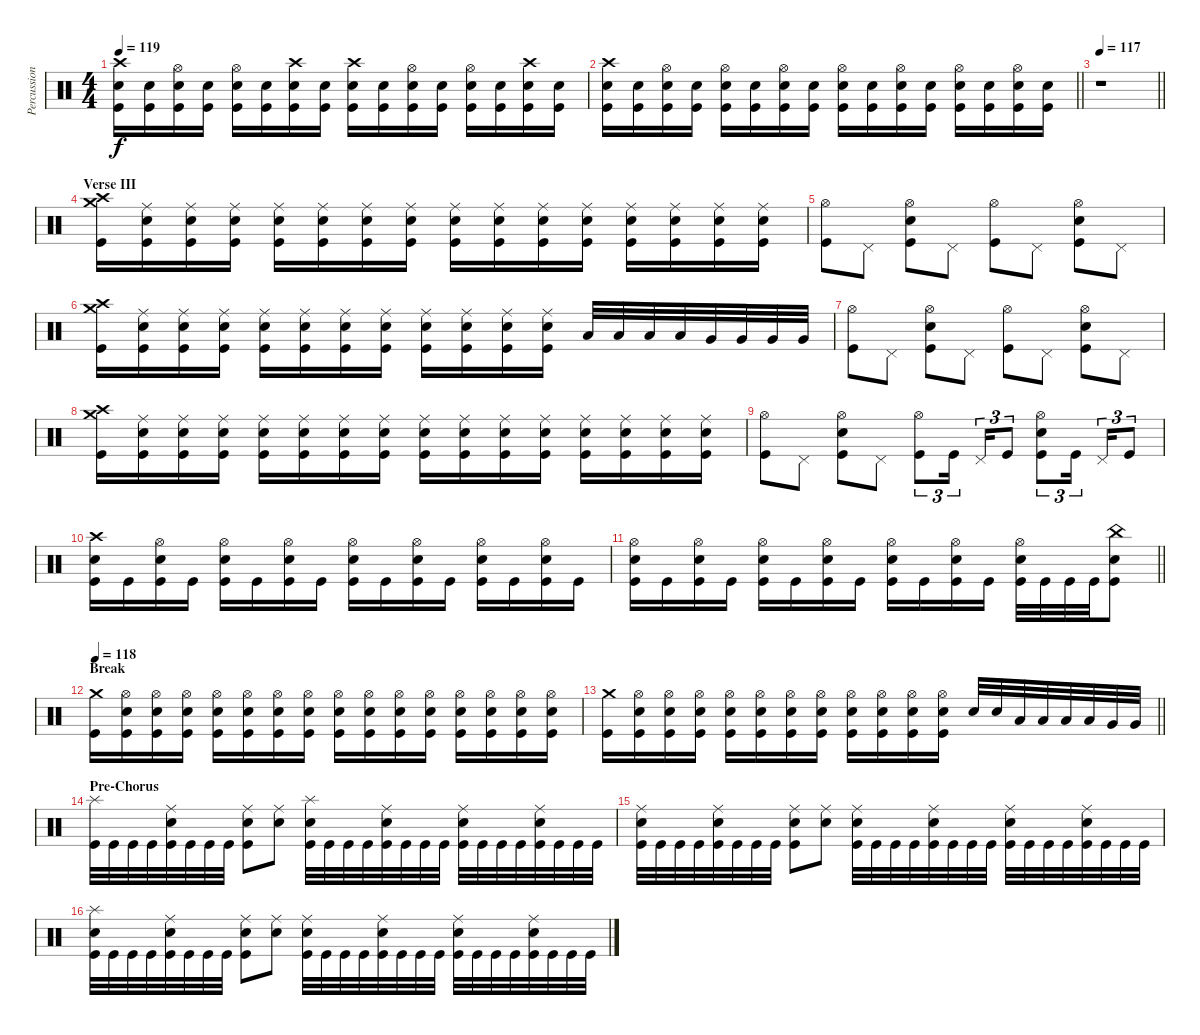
\track ("Percussion" "Percussion") {instrument percussion}
\staff {score}
\articulation defaults
\ts (4 4)
\tempo 119
\clef neutral
\ks c
("Crash high (hit)" "Electric Snare (hit)" "Kick (hit)").16{dy f} ("Electric Snare (hit)" "Kick (hit)").16 ("Hi-Hat (open)" "Electric Snare (hit)" "Kick (hit)").16 ("Electric Snare (hit)" "Kick (hit)").16 ("Hi-Hat (open)" "Electric Snare (hit)" "Kick (hit)").16 ("Electric Snare (hit)" "Kick (hit)").16 ("Crash high (hit)" "Electric Snare (hit)" "Kick (hit)").16 ("Electric Snare (hit)" "Kick (hit)").16 ("Crash high (hit)" "Electric Snare (hit)" "Kick (hit)").16 ("Electric Snare (hit)" "Kick (hit)").16 ("Hi-Hat (open)" "Electric Snare (hit)" "Kick (hit)").16 ("Electric Snare (hit)" "Kick (hit)").16 ("Hi-Hat (open)" "Electric Snare (hit)" "Kick (hit)").16 ("Electric Snare (hit)" "Kick (hit)").16 ("Crash high (hit)" "Electric Snare (hit)" "Kick (hit)").16 ("Electric Snare (hit)" "Kick (hit)").16 |
\barLineRight lightlight
("Crash high (hit)" "Electric Snare (hit)" "Kick (hit)").16 ("Electric Snare (hit)" "Kick (hit)").16 ("Hi-Hat (open)" "Electric Snare (hit)" "Kick (hit)").16 ("Electric Snare (hit)" "Kick (hit)").16 ("Hi-Hat (open)" "Electric Snare (hit)" "Kick (hit)").16 ("Electric Snare (hit)" "Kick (hit)").16 ("Hi-Hat (open)" "Electric Snare (hit)" "Kick (hit)").16 ("Electric Snare (hit)" "Kick (hit)").16 ("Hi-Hat (open)" "Electric Snare (hit)" "Kick (hit)").16 ("Electric Snare (hit)" "Kick (hit)").16 ("Hi-Hat (open)" "Electric Snare (hit)" "Kick (hit)").16 ("Electric Snare (hit)" "Kick (hit)").16 ("Hi-Hat (open)" "Electric Snare (hit)" "Kick (hit)").16 ("Electric Snare (hit)" "Kick (hit)").16 ("Hi-Hat (open)" "Electric Snare (hit)" "Kick (hit)").16 ("Electric Snare (hit)" "Kick (hit)").16 |
\tempo 117
\barLineRight lightlight
r.1{volume 0} |
\section ("" "Verse III")
("Crash medium (hit)" "Crash high (hit)" "Kick (hit)").16{volume 13} ("Ride (middle)" "Electric Snare (hit)" "Kick (hit)").16 ("Ride (middle)" "Electric Snare (hit)" "Kick (hit)").16 ("Ride (middle)" "Electric Snare (hit)" "Kick (hit)").16 ("Ride (middle)" "Electric Snare (hit)" "Kick (hit)").16 ("Ride (middle)" "Electric Snare (hit)" "Kick (hit)").16 ("Ride (middle)" "Electric Snare (hit)" "Kick (hit)").16 ("Ride (middle)" "Electric Snare (hit)" "Kick (hit)").16 ("Ride (middle)" "Electric Snare (hit)" "Kick (hit)").16 ("Ride (middle)" "Electric Snare (hit)" "Kick (hit)").16 ("Ride (middle)" "Electric Snare (hit)" "Kick (hit)").16 ("Ride (middle)" "Electric Snare (hit)" "Kick (hit)").16 ("Ride (middle)" "Electric Snare (hit)" "Kick (hit)").16 ("Ride (middle)" "Electric Snare (hit)" "Kick (hit)").16 ("Ride (middle)" "Electric Snare (hit)" "Kick (hit)").16 ("Ride (middle)" "Electric Snare (hit)" "Kick (hit)").16 |
("Hi-Hat (open)" "Kick (hit)").8 "Pedal Hi-Hat (hit)".8 ("Hi-Hat (open)" "Electric Snare (hit)" "Kick (hit)").8 "Pedal Hi-Hat (hit)".8 ("Hi-Hat (open)" "Kick (hit)").8 "Pedal Hi-Hat (hit)".8 ("Hi-Hat (open)" "Electric Snare (hit)" "Kick (hit)").8 "Pedal Hi-Hat (hit)".8 |
("Crash medium (hit)" "Crash high (hit)" "Kick (hit)").16 ("Ride (middle)" "Electric Snare (hit)" "Kick (hit)").16 ("Ride (middle)" "Electric Snare (hit)" "Kick (hit)").16 ("Ride (middle)" "Electric Snare (hit)" "Kick (hit)").16 ("Ride (middle)" "Electric Snare (hit)" "Kick (hit)").16 ("Ride (middle)" "Electric Snare (hit)" "Kick (hit)").16 ("Ride (middle)" "Electric Snare (hit)" "Kick (hit)").16 ("Ride (middle)" "Electric Snare (hit)" "Kick (hit)").16 ("Ride (middle)" "Electric Snare (hit)" "Kick (hit)").16 ("Ride (middle)" "Electric Snare (hit)" "Kick (hit)").16 ("Ride (middle)" "Electric Snare (hit)" "Kick (hit)").16 ("Ride (middle)" "Electric Snare (hit)" "Kick (hit)").16 "Low Tom (hit)".32 "Low Tom (hit)".32 "Low Tom (hit)".32 "Low Tom (hit)".32 "Very Low Tom (hit)".32 "Very Low Tom (hit)".32 "Very Low Tom (hit)".32 "Very Low Tom (hit)".32 |
("Hi-Hat (open)" "Kick (hit)").8 "Pedal Hi-Hat (hit)".8 ("Hi-Hat (open)" "Electric Snare (hit)" "Kick (hit)").8 "Pedal Hi-Hat (hit)".8 ("Hi-Hat (open)" "Kick (hit)").8 "Pedal Hi-Hat (hit)".8 ("Hi-Hat (open)" "Electric Snare (hit)" "Kick (hit)").8 "Pedal Hi-Hat (hit)".8 |
("Crash medium (hit)" "Crash high (hit)" "Kick (hit)").16 ("Ride (middle)" "Electric Snare (hit)" "Kick (hit)").16 ("Ride (middle)" "Electric Snare (hit)" "Kick (hit)").16 ("Ride (middle)" "Electric Snare (hit)" "Kick (hit)").16 ("Ride (middle)" "Electric Snare (hit)" "Kick (hit)").16 ("Ride (middle)" "Electric Snare (hit)" "Kick (hit)").16 ("Ride (middle)" "Electric Snare (hit)" "Kick (hit)").16 ("Ride (middle)" "Electric Snare (hit)" "Kick (hit)").16 ("Ride (middle)" "Electric Snare (hit)" "Kick (hit)").16 ("Ride (middle)" "Electric Snare (hit)" "Kick (hit)").16 ("Ride (middle)" "Electric Snare (hit)" "Kick (hit)").16 ("Ride (middle)" "Electric Snare (hit)" "Kick (hit)").16 ("Ride (middle)" "Electric Snare (hit)" "Kick (hit)").16 ("Ride (middle)" "Electric Snare (hit)" "Kick (hit)").16 ("Ride (middle)" "Electric Snare (hit)" "Kick (hit)").16 ("Ride (middle)" "Electric Snare (hit)" "Kick (hit)").16 |
("Hi-Hat (open)" "Kick (hit)").8 "Pedal Hi-Hat (hit)".8 ("Hi-Hat (open)" "Electric Snare (hit)" "Kick (hit)").8 "Pedal Hi-Hat (hit)".8 ("Hi-Hat (open)" "Kick (hit)").8{tu (3 2)} "Kick (hit)".16{tu (3 2) beam splitsecondary} "Pedal Hi-Hat (hit)".16{tu (3 2)} "Kick (hit)".8{tu (3 2)} ("Hi-Hat (open)" "Electric Snare (hit)" "Kick (hit)").8{tu (3 2)} "Kick (hit)".16{tu (3 2) beam splitsecondary} "Pedal Hi-Hat (hit)".16{tu (3 2)} "Kick (hit)".8{tu (3 2)} |
("Crash high (hit)" "Electric Snare (hit)" "Kick (hit)").16 "Kick (hit)".16 ("Hi-Hat (open)" "Electric Snare (hit)" "Kick (hit)").16 "Kick (hit)".16 ("Hi-Hat (open)" "Electric Snare (hit)" "Kick (hit)").16 "Kick (hit)".16 ("Hi-Hat (open)" "Electric Snare (hit)" "Kick (hit)").16 "Kick (hit)".16 ("Hi-Hat (open)" "Electric Snare (hit)" "Kick (hit)").16 "Kick (hit)".16 ("Hi-Hat (open)" "Electric Snare (hit)" "Kick (hit)").16 "Kick (hit)".16 ("Hi-Hat (open)" "Electric Snare (hit)" "Kick (hit)").16 "Kick (hit)".16 ("Hi-Hat (open)" "Electric Snare (hit)" "Kick (hit)").16 "Kick (hit)".16 |
\barLineRight lightlight
("Hi-Hat (open)" "Electric Snare (hit)" "Kick (hit)").16 "Kick (hit)".16 ("Hi-Hat (open)" "Electric Snare (hit)" "Kick (hit)").16 "Kick (hit)".16 ("Hi-Hat (open)" "Electric Snare (hit)" "Kick (hit)").16 "Kick (hit)".16 ("Hi-Hat (open)" "Electric Snare (hit)" "Kick (hit)").16 "Kick (hit)".16 ("Hi-Hat (open)" "Electric Snare (hit)" "Kick (hit)").16 "Kick (hit)".16 ("Hi-Hat (open)" "Electric Snare (hit)" "Kick (hit)").16 "Kick (hit)".16 ("Hi-Hat (open)" "Electric Snare (hit)" "Kick (hit)").32 "Kick (hit)".32 "Kick (hit)".32 "Kick (hit)".32 ("China (hit)" "Electric Snare (hit)" "Kick (hit)").8 |
\section ("" "Break")
\tempo 118
("Crash medium (hit)" "Kick (hit)").16 ("Hi-Hat (open)" "Electric Snare (hit)" "Kick (hit)").16 ("Hi-Hat (open)" "Electric Snare (hit)" "Kick (hit)").16 ("Hi-Hat (open)" "Electric Snare (hit)" "Kick (hit)").16 ("Hi-Hat (open)" "Electric Snare (hit)" "Kick (hit)").16 ("Hi-Hat (open)" "Electric Snare (hit)" "Kick (hit)").16 ("Hi-Hat (open)" "Electric Snare (hit)" "Kick (hit)").16 ("Hi-Hat (open)" "Electric Snare (hit)" "Kick (hit)").16 ("Hi-Hat (open)" "Electric Snare (hit)" "Kick (hit)").16 ("Hi-Hat (open)" "Electric Snare (hit)" "Kick (hit)").16 ("Hi-Hat (open)" "Electric Snare (hit)" "Kick (hit)").16 ("Hi-Hat (open)" "Electric Snare (hit)" "Kick (hit)").16 ("Hi-Hat (open)" "Electric Snare (hit)" "Kick (hit)").16 ("Hi-Hat (open)" "Electric Snare (hit)" "Kick (hit)").16 ("Hi-Hat (open)" "Electric Snare (hit)" "Kick (hit)").16 ("Hi-Hat (open)" "Electric Snare (hit)" "Kick (hit)").16 |
\barLineRight lightlight
("Crash medium (hit)" "Kick (hit)").16 ("Hi-Hat (open)" "Electric Snare (hit)" "Kick (hit)").16 ("Hi-Hat (open)" "Electric Snare (hit)" "Kick (hit)").16 ("Hi-Hat (open)" "Electric Snare (hit)" "Kick (hit)").16 ("Hi-Hat (open)" "Electric Snare (hit)" "Kick (hit)").16 ("Hi-Hat (open)" "Electric Snare (hit)" "Kick (hit)").16 ("Hi-Hat (open)" "Electric Snare (hit)" "Kick (hit)").16 ("Hi-Hat (open)" "Electric Snare (hit)" "Kick (hit)").16 ("Hi-Hat (open)" "Electric Snare (hit)" "Kick (hit)").16 ("Hi-Hat (open)" "Electric Snare (hit)" "Kick (hit)").16 ("Hi-Hat (open)" "Electric Snare (hit)" "Kick (hit)").16 ("Hi-Hat (open)" "Electric Snare (hit)" "Kick (hit)").16 "Electric Snare (hit)".32 "Electric Snare (hit)".32 "Low Tom (hit)".32 "Low Tom (hit)".32 "Low Tom (hit)".32 "Low Tom (hit)".32 "Very Low Tom (hit)".32 "Very Low Tom (hit)".32 |
\section ("" "Pre-Chorus")
("Splash (hit)" "Kick (hit)").32 "Kick (hit)".32 "Kick (hit)".32 "Kick (hit)".32 ("Ride (middle)" "Electric Snare (hit)" "Kick (hit)").32 "Kick (hit)".32 "Kick (hit)".32 "Kick (hit)".32 ("Ride (middle)" "Electric Snare (hit)" "Kick (hit)").8 ("Ride (middle)" "Electric Snare (hit)").8 ("Splash (hit)" "Electric Snare (hit)" "Kick (hit)").32 "Kick (hit)".32 "Kick (hit)".32 "Kick (hit)".32 ("Ride (middle)" "Electric Snare (hit)" "Kick (hit)").32 "Kick (hit)".32 "Kick (hit)".32 "Kick (hit)".32 ("Ride (middle)" "Electric Snare (hit)" "Kick (hit)").32 "Kick (hit)".32 "Kick (hit)".32 "Kick (hit)".32 ("Ride (middle)" "Electric Snare (hit)" "Kick (hit)").32 "Kick (hit)".32 "Kick (hit)".32 "Kick (hit)".32 |
("Ride (middle)" "Electric Snare (hit)" "Kick (hit)").32 "Kick (hit)".32 "Kick (hit)".32 "Kick (hit)".32 ("Ride (middle)" "Electric Snare (hit)" "Kick (hit)").32 "Kick (hit)".32 "Kick (hit)".32 "Kick (hit)".32 ("Ride (middle)" "Electric Snare (hit)" "Kick (hit)").8 ("Ride (middle)" "Electric Snare (hit)").8 ("Ride (middle)" "Electric Snare (hit)" "Kick (hit)").32 "Kick (hit)".32 "Kick (hit)".32 "Kick (hit)".32 ("Ride (middle)" "Electric Snare (hit)" "Kick (hit)").32 "Kick (hit)".32 "Kick (hit)".32 "Kick (hit)".32 ("Ride (middle)" "Electric Snare (hit)" "Kick (hit)").32 "Kick (hit)".32 "Kick (hit)".32 "Kick (hit)".32 ("Ride (middle)" "Electric Snare (hit)" "Kick (hit)").32 "Kick (hit)".32 "Kick (hit)".32 "Kick (hit)".32 |
("Splash (hit)" "Electric Snare (hit)" "Kick (hit)").32 "Kick (hit)".32 "Kick (hit)".32 "Kick (hit)".32 ("Ride (middle)" "Electric Snare (hit)" "Kick (hit)").32 "Kick (hit)".32 "Kick (hit)".32 "Kick (hit)".32 ("Ride (middle)" "Electric Snare (hit)" "Kick (hit)").8 ("Ride (middle)" "Electric Snare (hit)").8 ("Ride (middle)" "Electric Snare (hit)" "Kick (hit)").32 "Kick (hit)".32 "Kick (hit)".32 "Kick (hit)".32 ("Ride (middle)" "Electric Snare (hit)" "Kick (hit)").32 "Kick (hit)".32 "Kick (hit)".32 "Kick (hit)".32 ("Ride (middle)" "Electric Snare (hit)" "Kick (hit)").32 "Kick (hit)".32 "Kick (hit)".32 "Kick (hit)".32 ("Ride (middle)" "Electric Snare (hit)" "Kick (hit)").32 "Kick (hit)".32 "Kick (hit)".32 "Kick (hit)".32
